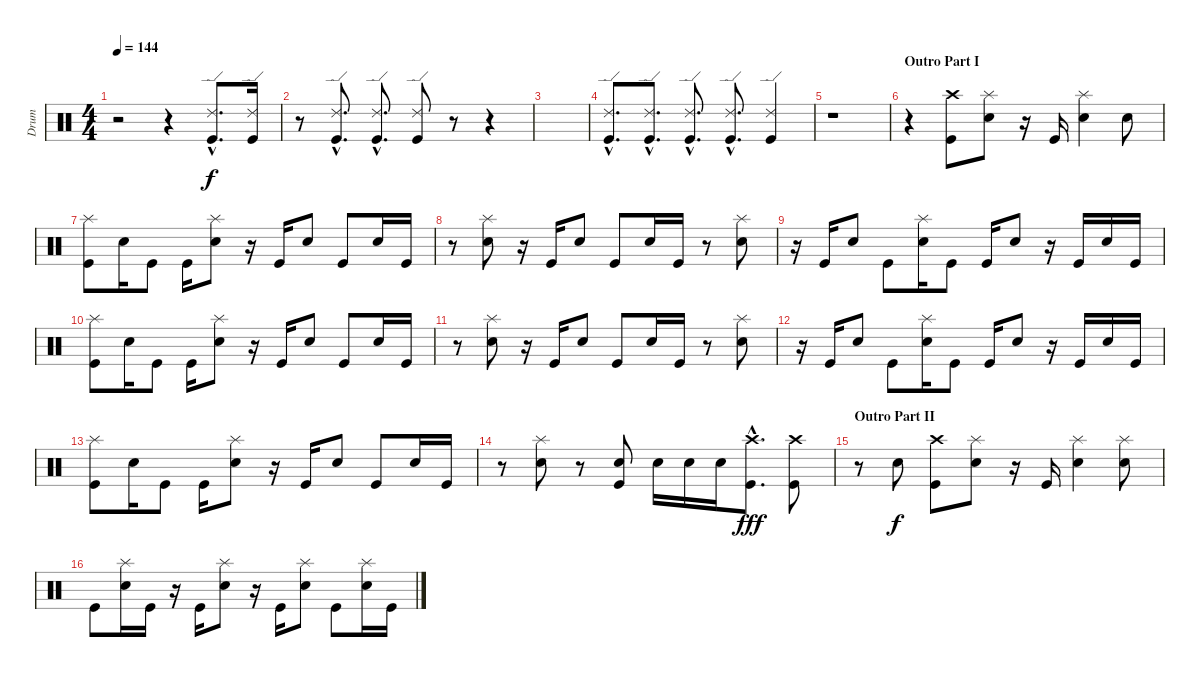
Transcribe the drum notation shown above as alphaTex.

\track ("Drum" "Drum") {instrument percussion}
\staff {score}
\articulation defaults
\ts (4 4)
\tempo 144
\clef neutral
\ks c
r.2{dy f} r.4 ("Ride (edge) 2"{hac} "Kick (hit)"{hac}).8{d} ("Ride (edge) 2" "Kick (hit)").16 |
r.8 ("Ride (edge) 2"{hac} "Kick (hit)"{hac}).8{d} ("Ride (edge) 2"{hac} "Kick (hit)"{hac}).8{d} ("Ride (edge) 2" "Kick (hit)").8 r.8 r.4 |
|
("Ride (edge) 2"{hac} "Kick (hit)"{hac}).8{d} ("Ride (edge) 2"{hac} "Kick (hit)"{hac}).8{d} ("Ride (edge) 2"{hac} "Kick (hit)"{hac}).8{d} ("Ride (edge) 2"{hac} "Kick (hit)"{hac}).8{d} ("Ride (edge) 2" "Kick (hit)").4 |
r.1 |
\section ("" "Outro Part I")
r.4 ("Crash high (hit)" "Kick (hit)").8 ("Splash (hit)" "Snare (hit) 2").8 r.16 "Kick (hit)".16 ("Splash (hit)" "Snare (hit) 2").4 "Snare (hit) 2".8 |
("Splash (hit)" "Kick (hit)").8 "Snare (hit) 2".16 "Kick (hit)".8 "Kick (hit)".16 ("Splash (hit)" "Snare (hit) 2").8 r.16 "Kick (hit)".16 "Snare (hit) 2".8 "Kick (hit)".8 "Snare (hit) 2".16 "Kick (hit)".16 |
r.8 ("Splash (hit)" "Snare (hit) 2").8 r.16 "Kick (hit)".16 "Snare (hit) 2".8 "Kick (hit)".8 "Snare (hit) 2".16 "Kick (hit)".16 r.8 ("Splash (hit)" "Snare (hit) 2").8 |
r.16 "Kick (hit)".16 "Snare (hit) 2".8 "Kick (hit)".8 ("Splash (hit)" "Snare (hit) 2").16 "Kick (hit)".8 "Kick (hit)".16 "Snare (hit) 2".8 r.16 "Kick (hit)".16 "Snare (hit) 2".16 "Kick (hit)".16 |
("Splash (hit)" "Kick (hit)").8 "Snare (hit) 2".16 "Kick (hit)".8 "Kick (hit)".16 ("Splash (hit)" "Snare (hit) 2").8 r.16 "Kick (hit)".16 "Snare (hit) 2".8 "Kick (hit)".8 "Snare (hit) 2".16 "Kick (hit)".16 |
r.8 ("Splash (hit)" "Snare (hit) 2").8 r.16 "Kick (hit)".16 "Snare (hit) 2".8 "Kick (hit)".8 "Snare (hit) 2".16 "Kick (hit)".16 r.8 ("Splash (hit)" "Snare (hit) 2").8 |
r.16 "Kick (hit)".16 "Snare (hit) 2".8 "Kick (hit)".8 ("Splash (hit)" "Snare (hit) 2").16 "Kick (hit)".8 "Kick (hit)".16 "Snare (hit) 2".8 r.16 "Kick (hit)".16 "Snare (hit) 2".16 "Kick (hit)".16 |
("Splash (hit)" "Kick (hit)").8 "Snare (hit) 2".16 "Kick (hit)".8 "Kick (hit)".16 ("Splash (hit)" "Snare (hit) 2").8 r.16 "Kick (hit)".16 "Snare (hit) 2".8 "Kick (hit)".8 "Snare (hit) 2".16 "Kick (hit)".16 |
r.8 ("Splash (hit)" "Snare (hit) 2").8 r.8 ("Snare (hit) 2" "Kick (hit)").8 "Snare (hit) 2".16 "Snare (hit) 2".16 "Snare (hit) 2".16 ("Crash high (hit)"{hac} "Kick (hit)"{hac}).8{d dy fff} ("Crash high (hit)" "Kick (hit)").8 |
\section ("" "Outro Part II")
r.8 "Hand Clap (hit)".8{dy f} ("Crash high (hit)" "Kick (hit)").8 ("Splash (hit)" "Snare (hit) 2").8 r.16 "Kick (hit)".16 ("Splash (hit)" "Snare (hit) 2").4 ("Splash (hit)" "Snare (hit) 2").8 |
"Kick (hit)".8 ("Splash (hit)" "Snare (hit) 2").16 "Kick (hit)".16 r.16 "Kick (hit)".16 ("Splash (hit)" "Snare (hit) 2").8 r.16 "Kick (hit)".16 ("Splash (hit)" "Snare (hit) 2").8 "Kick (hit)".8 ("Splash (hit)" "Snare (hit) 2").16 "Kick (hit)".16
